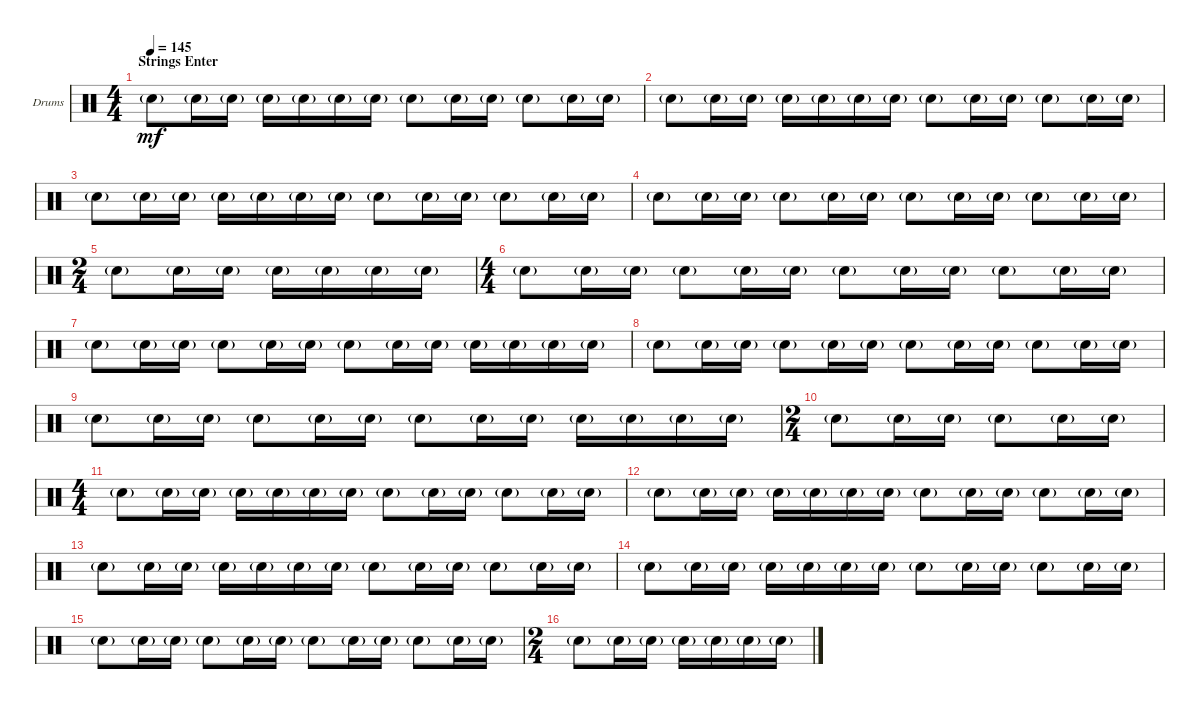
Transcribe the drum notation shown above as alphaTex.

\defaultSystemsLayout 4
\bracketExtendMode groupsimilarinstruments
\firstSystemTrackNameOrientation horizontal
\otherSystemsTrackNameOrientation horizontal
\track ("Drums" "Drums") {instrument percussion}
\staff {score}
\articulation defaults
\ts (4 4)
\section ("" "Strings Enter")
\tempo 145
\clef neutral
\ks c "Snare (hit) 2"{g}.8{dy mf} "Snare (hit) 2"{g}.16 "Snare (hit) 2"{g}.16 "Snare (hit) 2"{g}.16 "Snare (hit) 2"{g}.16 "Snare (hit) 2"{g}.16 "Snare (hit) 2"{g}.16 "Snare (hit) 2"{g}.8 "Snare (hit) 2"{g}.16 "Snare (hit) 2"{g}.16 "Snare (hit) 2"{g}.8 "Snare (hit) 2"{g}.16 "Snare (hit) 2"{g}.16
|
"Snare (hit) 2"{g}.8 "Snare (hit) 2"{g}.16 "Snare (hit) 2"{g}.16 "Snare (hit) 2"{g}.16 "Snare (hit) 2"{g}.16 "Snare (hit) 2"{g}.16 "Snare (hit) 2"{g}.16 "Snare (hit) 2"{g}.8 "Snare (hit) 2"{g}.16 "Snare (hit) 2"{g}.16 "Snare (hit) 2"{g}.8 "Snare (hit) 2"{g}.16 "Snare (hit) 2"{g}.16 |
"Snare (hit) 2"{g}.8 "Snare (hit) 2"{g}.16 "Snare (hit) 2"{g}.16 "Snare (hit) 2"{g}.16 "Snare (hit) 2"{g}.16 "Snare (hit) 2"{g}.16 "Snare (hit) 2"{g}.16 "Snare (hit) 2"{g}.8 "Snare (hit) 2"{g}.16 "Snare (hit) 2"{g}.16 "Snare (hit) 2"{g}.8 "Snare (hit) 2"{g}.16 "Snare (hit) 2"{g}.16 |
"Snare (hit) 2"{g}.8 "Snare (hit) 2"{g}.16 "Snare (hit) 2"{g}.16 "Snare (hit) 2"{g}.8 "Snare (hit) 2"{g}.16 "Snare (hit) 2"{g}.16 "Snare (hit) 2"{g}.8 "Snare (hit) 2"{g}.16 "Snare (hit) 2"{g}.16 "Snare (hit) 2"{g}.8 "Snare (hit) 2"{g}.16 "Snare (hit) 2"{g}.16 |
\ts (2 4)
"Snare (hit) 2"{g}.8 "Snare (hit) 2"{g}.16 "Snare (hit) 2"{g}.16 "Snare (hit) 2"{g}.16 "Snare (hit) 2"{g}.16 "Snare (hit) 2"{g}.16 "Snare (hit) 2"{g}.16 |
\ts (4 4)
"Snare (hit) 2"{g}.8 "Snare (hit) 2"{g}.16 "Snare (hit) 2"{g}.16 "Snare (hit) 2"{g}.8 "Snare (hit) 2"{g}.16 "Snare (hit) 2"{g}.16 "Snare (hit) 2"{g}.8 "Snare (hit) 2"{g}.16 "Snare (hit) 2"{g}.16 "Snare (hit) 2"{g}.8 "Snare (hit) 2"{g}.16 "Snare (hit) 2"{g}.16 |
"Snare (hit) 2"{g}.8 "Snare (hit) 2"{g}.16 "Snare (hit) 2"{g}.16 "Snare (hit) 2"{g}.8 "Snare (hit) 2"{g}.16 "Snare (hit) 2"{g}.16 "Snare (hit) 2"{g}.8 "Snare (hit) 2"{g}.16 "Snare (hit) 2"{g}.16 "Snare (hit) 2"{g}.16 "Snare (hit) 2"{g}.16 "Snare (hit) 2"{g}.16 "Snare (hit) 2"{g}.16 |
"Snare (hit) 2"{g}.8 "Snare (hit) 2"{g}.16 "Snare (hit) 2"{g}.16 "Snare (hit) 2"{g}.8 "Snare (hit) 2"{g}.16 "Snare (hit) 2"{g}.16 "Snare (hit) 2"{g}.8 "Snare (hit) 2"{g}.16 "Snare (hit) 2"{g}.16 "Snare (hit) 2"{g}.8 "Snare (hit) 2"{g}.16 "Snare (hit) 2"{g}.16 |
"Snare (hit) 2"{g}.8 "Snare (hit) 2"{g}.16 "Snare (hit) 2"{g}.16 "Snare (hit) 2"{g}.8 "Snare (hit) 2"{g}.16 "Snare (hit) 2"{g}.16 "Snare (hit) 2"{g}.8 "Snare (hit) 2"{g}.16 "Snare (hit) 2"{g}.16 "Snare (hit) 2"{g}.16 "Snare (hit) 2"{g}.16 "Snare (hit) 2"{g}.16 "Snare (hit) 2"{g}.16 |
\ts (2 4)
"Snare (hit) 2"{g}.8 "Snare (hit) 2"{g}.16 "Snare (hit) 2"{g}.16 "Snare (hit) 2"{g}.8 "Snare (hit) 2"{g}.16 "Snare (hit) 2"{g}.16 |
\ts (4 4)
"Snare (hit) 2"{g}.8 "Snare (hit) 2"{g}.16 "Snare (hit) 2"{g}.16 "Snare (hit) 2"{g}.16 "Snare (hit) 2"{g}.16 "Snare (hit) 2"{g}.16 "Snare (hit) 2"{g}.16 "Snare (hit) 2"{g}.8 "Snare (hit) 2"{g}.16 "Snare (hit) 2"{g}.16 "Snare (hit) 2"{g}.8 "Snare (hit) 2"{g}.16 "Snare (hit) 2"{g}.16 |
"Snare (hit) 2"{g}.8 "Snare (hit) 2"{g}.16 "Snare (hit) 2"{g}.16 "Snare (hit) 2"{g}.16 "Snare (hit) 2"{g}.16 "Snare (hit) 2"{g}.16 "Snare (hit) 2"{g}.16 "Snare (hit) 2"{g}.8 "Snare (hit) 2"{g}.16 "Snare (hit) 2"{g}.16 "Snare (hit) 2"{g}.8 "Snare (hit) 2"{g}.16 "Snare (hit) 2"{g}.16 |
"Snare (hit) 2"{g}.8 "Snare (hit) 2"{g}.16 "Snare (hit) 2"{g}.16 "Snare (hit) 2"{g}.16 "Snare (hit) 2"{g}.16 "Snare (hit) 2"{g}.16 "Snare (hit) 2"{g}.16 "Snare (hit) 2"{g}.8 "Snare (hit) 2"{g}.16 "Snare (hit) 2"{g}.16 "Snare (hit) 2"{g}.8 "Snare (hit) 2"{g}.16 "Snare (hit) 2"{g}.16 |
"Snare (hit) 2"{g}.8 "Snare (hit) 2"{g}.16 "Snare (hit) 2"{g}.16 "Snare (hit) 2"{g}.16 "Snare (hit) 2"{g}.16 "Snare (hit) 2"{g}.16 "Snare (hit) 2"{g}.16 "Snare (hit) 2"{g}.8 "Snare (hit) 2"{g}.16 "Snare (hit) 2"{g}.16 "Snare (hit) 2"{g}.8 "Snare (hit) 2"{g}.16 "Snare (hit) 2"{g}.16 |
"Snare (hit) 2"{g}.8 "Snare (hit) 2"{g}.16 "Snare (hit) 2"{g}.16 "Snare (hit) 2"{g}.8 "Snare (hit) 2"{g}.16 "Snare (hit) 2"{g}.16 "Snare (hit) 2"{g}.8 "Snare (hit) 2"{g}.16 "Snare (hit) 2"{g}.16 "Snare (hit) 2"{g}.8 "Snare (hit) 2"{g}.16 "Snare (hit) 2"{g}.16 |
\ts (2 4)
"Snare (hit) 2"{g}.8 "Snare (hit) 2"{g}.16 "Snare (hit) 2"{g}.16 "Snare (hit) 2"{g}.16 "Snare (hit) 2"{g}.16 "Snare (hit) 2"{g}.16 "Snare (hit) 2"{g}.16
